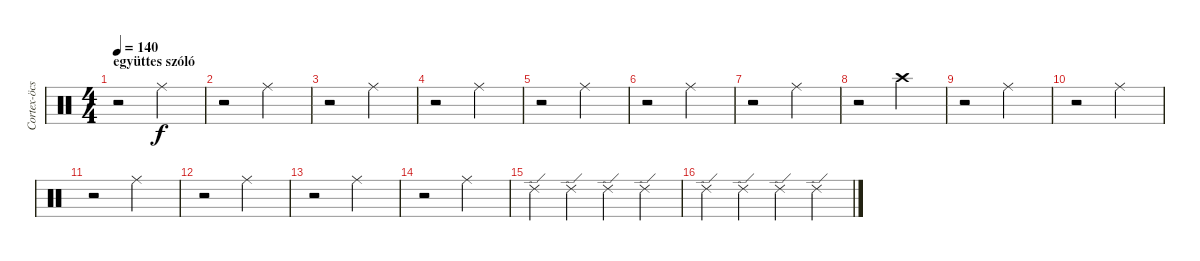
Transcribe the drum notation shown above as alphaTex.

\track ("Cortex-öcsi :)" "Cortex-öcs") {instrument percussion}
\staff {score}
\articulation defaults
\ts (4 4)
\section ("" "együttes szóló")
\tempo 140
\clef neutral
\ks c
r.2{dy f} "Ride (middle)".2 |
r.2 "Ride (middle)".2 |
r.2 "Ride (middle)".2 |
r.2 "Ride (middle)".2 |
r.2 "Ride (middle)".2 |
r.2 "Ride (middle)".2 |
r.2 "Ride (middle)".2 |
r.2 "Crash high (hit)".2 |
r.2 "Ride (middle)".2 |
r.2 "Ride (middle)".2 |
r.2 "Ride (middle)".2 |
r.2 "Ride (middle)".2 |
r.2 "Ride (middle)".2 |
r.2 "Ride (middle)".2 |
"Ride (edge) 2".4 "Ride (edge) 2".4 "Ride (edge) 2".4 "Ride (edge) 2".4 |
"Ride (edge) 2".4 "Ride (edge) 2".4 "Ride (edge) 2".4 "Ride (edge) 2".4
